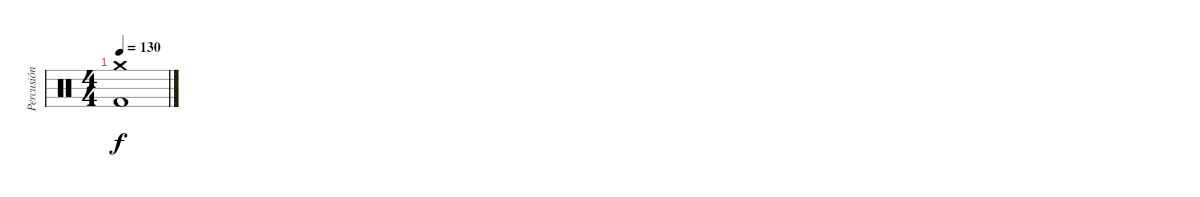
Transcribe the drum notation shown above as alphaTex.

\track ("Percusión" "Percusión") {instrument percussion}
\staff {score}
\articulation defaults
\ts (4 4)
\tempo 130
\clef neutral
\ks c
("Kick (hit) 2" "Crash medium (hit)").1{dy f}
